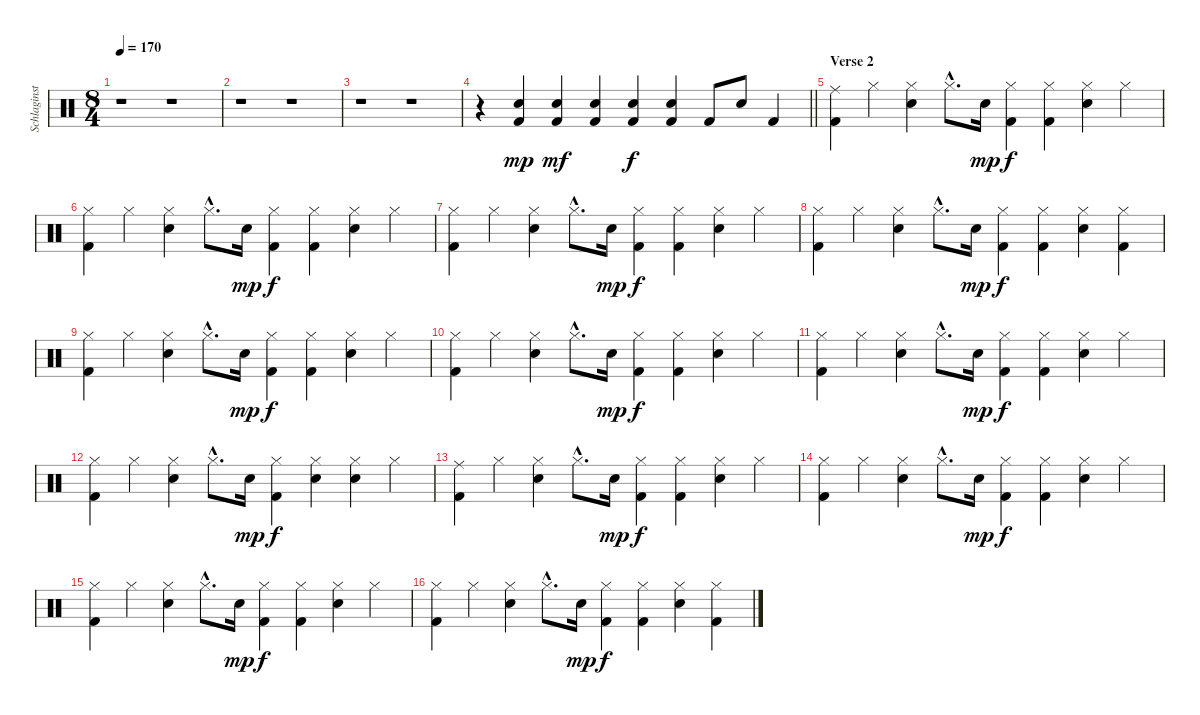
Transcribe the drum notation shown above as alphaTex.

\track ("Schlaginstrumente - Auswahl" "Schlaginst") {instrument percussion}
\staff {score}
\articulation defaults
\ts (8 4)
\tempo 170
\clef neutral
\ks c
r.1{dy mp} r.1 |
r.1 r.1 |
r.1 r.1 |
\barLineRight lightlight
r.4 ("Electric Snare (hit)" "Kick (hit) 2").4 ("Electric Snare (hit)" "Kick (hit) 2").4{dy mf} ("Electric Snare (hit)" "Kick (hit) 2").4 ("Electric Snare (hit)" "Kick (hit) 2").4{dy f} ("Electric Snare (hit)" "Kick (hit) 2").4 "Kick (hit) 2".8 "Electric Snare (hit)".8 "Kick (hit) 2".4 |
\section ("" "Verse 2")
("Ride (middle)" "Kick (hit) 2").4 "Hi-Hat (closed)".4 ("Hi-Hat (closed)" "Electric Snare (hit)").4 "Hi-Hat (closed)"{hac}.8{d} "Electric Snare (hit)".16{dy mp} ("Hi-Hat (closed)" "Kick (hit) 2").4{dy f} ("Hi-Hat (closed)" "Kick (hit) 2").4 ("Hi-Hat (closed)" "Electric Snare (hit)").4 "Hi-Hat (closed)".4 |
("Hi-Hat (closed)" "Kick (hit) 2").4 "Hi-Hat (closed)".4 ("Hi-Hat (closed)" "Electric Snare (hit)").4 "Hi-Hat (closed)"{hac}.8{d} "Electric Snare (hit)".16{dy mp} ("Hi-Hat (closed)" "Kick (hit) 2").4{dy f} ("Hi-Hat (closed)" "Kick (hit) 2").4 ("Hi-Hat (closed)" "Electric Snare (hit)").4 "Hi-Hat (closed)".4 |
("Hi-Hat (closed)" "Kick (hit) 2").4 "Hi-Hat (closed)".4 ("Hi-Hat (closed)" "Electric Snare (hit)").4 "Hi-Hat (closed)"{hac}.8{d} "Electric Snare (hit)".16{dy mp} ("Hi-Hat (closed)" "Kick (hit) 2").4{dy f} ("Hi-Hat (closed)" "Kick (hit) 2").4 ("Hi-Hat (closed)" "Electric Snare (hit)").4 "Hi-Hat (closed)".4 |
("Hi-Hat (closed)" "Kick (hit) 2").4 "Hi-Hat (closed)".4 ("Hi-Hat (closed)" "Electric Snare (hit)").4 "Hi-Hat (closed)"{hac}.8{d} "Electric Snare (hit)".16{dy mp} ("Hi-Hat (closed)" "Kick (hit) 2").4{dy f} ("Hi-Hat (closed)" "Kick (hit) 2").4 ("Hi-Hat (closed)" "Electric Snare (hit)").4 ("Hi-Hat (closed)" "Kick (hit) 2").4 |
("Hi-Hat (closed)" "Kick (hit) 2").4 "Hi-Hat (closed)".4 ("Hi-Hat (closed)" "Electric Snare (hit)").4 "Hi-Hat (closed)"{hac}.8{d} "Electric Snare (hit)".16{dy mp} ("Hi-Hat (closed)" "Kick (hit) 2").4{dy f} ("Hi-Hat (closed)" "Kick (hit) 2").4 ("Hi-Hat (closed)" "Electric Snare (hit)").4 "Hi-Hat (closed)".4 |
("Hi-Hat (closed)" "Kick (hit) 2").4 "Hi-Hat (closed)".4 ("Hi-Hat (closed)" "Electric Snare (hit)").4 "Hi-Hat (closed)"{hac}.8{d} "Electric Snare (hit)".16{dy mp} ("Hi-Hat (closed)" "Kick (hit) 2").4{dy f} ("Hi-Hat (closed)" "Kick (hit) 2").4 ("Hi-Hat (closed)" "Electric Snare (hit)").4 "Hi-Hat (closed)".4 |
("Hi-Hat (closed)" "Kick (hit) 2").4 "Hi-Hat (closed)".4 ("Hi-Hat (closed)" "Electric Snare (hit)").4 "Hi-Hat (closed)"{hac}.8{d} "Electric Snare (hit)".16{dy mp} ("Hi-Hat (closed)" "Kick (hit) 2").4{dy f} ("Hi-Hat (closed)" "Kick (hit) 2").4 ("Hi-Hat (closed)" "Electric Snare (hit)").4 "Hi-Hat (closed)".4 |
("Hi-Hat (closed)" "Kick (hit) 2").4 "Hi-Hat (closed)".4 ("Hi-Hat (closed)" "Electric Snare (hit)").4 "Hi-Hat (closed)"{hac}.8{d} "Electric Snare (hit)".16{dy mp} ("Hi-Hat (closed)" "Kick (hit) 2").4{dy f} ("Hi-Hat (closed)" "Snare (hit)").4 ("Hi-Hat (closed)" "Electric Snare (hit)").4 "Hi-Hat (closed)".4 |
("Ride (middle)" "Kick (hit) 2").4 "Hi-Hat (closed)".4 ("Hi-Hat (closed)" "Electric Snare (hit)").4 "Hi-Hat (closed)"{hac}.8{d} "Electric Snare (hit)".16{dy mp} ("Hi-Hat (closed)" "Kick (hit) 2").4{dy f} ("Hi-Hat (closed)" "Kick (hit) 2").4 ("Hi-Hat (closed)" "Electric Snare (hit)").4 "Hi-Hat (closed)".4 |
("Hi-Hat (closed)" "Kick (hit) 2").4 "Hi-Hat (closed)".4 ("Hi-Hat (closed)" "Electric Snare (hit)").4 "Hi-Hat (closed)"{hac}.8{d} "Electric Snare (hit)".16{dy mp} ("Hi-Hat (closed)" "Kick (hit) 2").4{dy f} ("Hi-Hat (closed)" "Kick (hit) 2").4 ("Hi-Hat (closed)" "Electric Snare (hit)").4 "Hi-Hat (closed)".4 |
("Hi-Hat (closed)" "Kick (hit) 2").4 "Hi-Hat (closed)".4 ("Hi-Hat (closed)" "Electric Snare (hit)").4 "Hi-Hat (closed)"{hac}.8{d} "Electric Snare (hit)".16{dy mp} ("Hi-Hat (closed)" "Kick (hit) 2").4{dy f} ("Hi-Hat (closed)" "Kick (hit) 2").4 ("Hi-Hat (closed)" "Electric Snare (hit)").4 "Hi-Hat (closed)".4 |
("Hi-Hat (closed)" "Kick (hit) 2").4 "Hi-Hat (closed)".4 ("Hi-Hat (closed)" "Electric Snare (hit)").4 "Hi-Hat (closed)"{hac}.8{d} "Electric Snare (hit)".16{dy mp} ("Hi-Hat (closed)" "Kick (hit) 2").4{dy f} ("Hi-Hat (closed)" "Kick (hit) 2").4 ("Hi-Hat (closed)" "Electric Snare (hit)").4 ("Hi-Hat (closed)" "Kick (hit) 2").4
